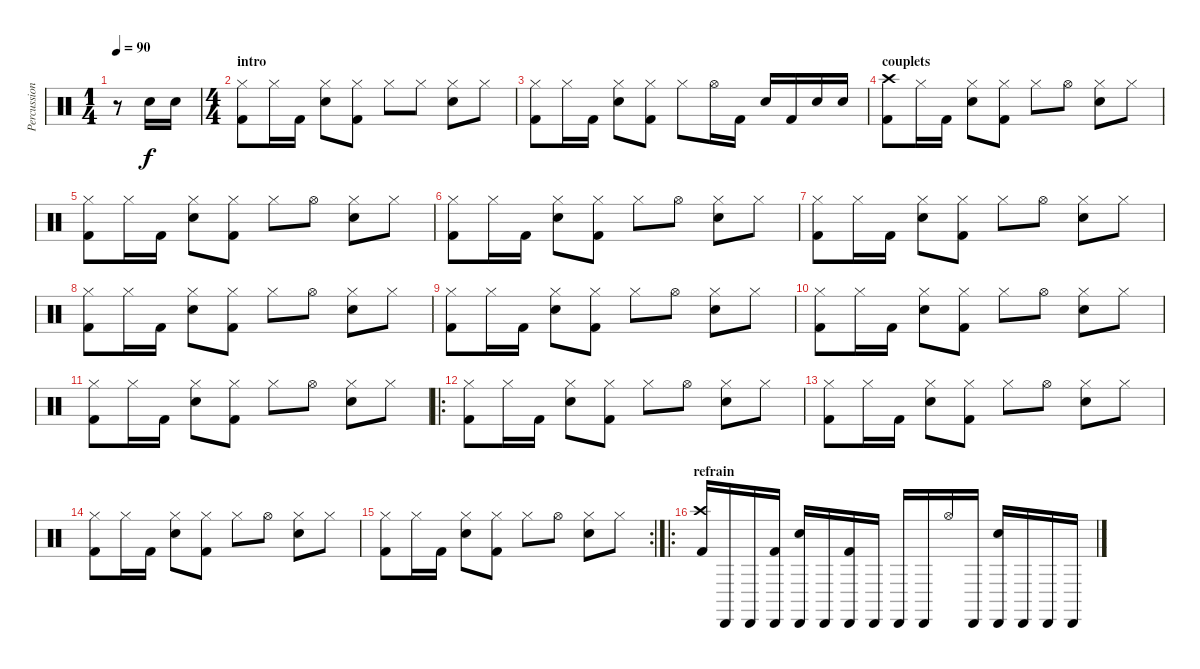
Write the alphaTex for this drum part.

\track ("Percussions" "Percussion") {instrument percussion}
\staff {score}
\articulation defaults
\ts (1 4)
\tempo 90
\clef neutral
\ks c
r.8{dy f} "Electric Snare (hit)".16 "Electric Snare (hit)".16 |
\ts (4 4)
\section ("" "intro")
("Hi-Hat (closed)" "Kick (hit) 2").8 "Hi-Hat (closed)".16 "Kick (hit) 2".16 ("Hi-Hat (closed)" "Electric Snare (hit)").8 ("Hi-Hat (closed)" "Kick (hit) 2").8 "Hi-Hat (closed)".8 "Hi-Hat (closed)".8 ("Hi-Hat (closed)" "Electric Snare (hit)").8 "Hi-Hat (closed)".8 |
("Hi-Hat (closed)" "Kick (hit) 2").8 "Hi-Hat (closed)".16 "Kick (hit) 2".16 ("Hi-Hat (closed)" "Electric Snare (hit)").8 ("Hi-Hat (closed)" "Kick (hit) 2").8 "Hi-Hat (closed)".8 "Hi-Hat (open)".16 "Kick (hit) 2".16 "Electric Snare (hit)".16 "Kick (hit) 2".16 "Electric Snare (hit)".16 "Electric Snare (hit)".16 |
\section ("" "couplets")
("Crash high (hit)" "Kick (hit) 2").8 "Hi-Hat (closed)".16 "Kick (hit) 2".16 ("Hi-Hat (closed)" "Electric Snare (hit)").8 ("Hi-Hat (closed)" "Kick (hit) 2").8 "Hi-Hat (closed)".8 "Hi-Hat (open)".8 ("Hi-Hat (closed)" "Electric Snare (hit)").8 "Hi-Hat (closed)".8 |
("Hi-Hat (closed)" "Kick (hit) 2").8 "Hi-Hat (closed)".16 "Kick (hit) 2".16 ("Hi-Hat (closed)" "Electric Snare (hit)").8 ("Hi-Hat (closed)" "Kick (hit) 2").8 "Hi-Hat (closed)".8 "Hi-Hat (open)".8 ("Hi-Hat (closed)" "Electric Snare (hit)").8 "Hi-Hat (closed)".8 |
("Hi-Hat (closed)" "Kick (hit) 2").8 "Hi-Hat (closed)".16 "Kick (hit) 2".16 ("Hi-Hat (closed)" "Electric Snare (hit)").8 ("Hi-Hat (closed)" "Kick (hit) 2").8 "Hi-Hat (closed)".8 "Hi-Hat (open)".8 ("Hi-Hat (closed)" "Electric Snare (hit)").8 "Hi-Hat (closed)".8 |
("Hi-Hat (closed)" "Kick (hit) 2").8 "Hi-Hat (closed)".16 "Kick (hit) 2".16 ("Hi-Hat (closed)" "Electric Snare (hit)").8 ("Hi-Hat (closed)" "Kick (hit) 2").8 "Hi-Hat (closed)".8 "Hi-Hat (open)".8 ("Hi-Hat (closed)" "Electric Snare (hit)").8 "Hi-Hat (closed)".8 |
("Hi-Hat (closed)" "Kick (hit) 2").8 "Hi-Hat (closed)".16 "Kick (hit) 2".16 ("Hi-Hat (closed)" "Electric Snare (hit)").8 ("Hi-Hat (closed)" "Kick (hit) 2").8 "Hi-Hat (closed)".8 "Hi-Hat (open)".8 ("Hi-Hat (closed)" "Electric Snare (hit)").8 "Hi-Hat (closed)".8 |
("Hi-Hat (closed)" "Kick (hit) 2").8 "Hi-Hat (closed)".16 "Kick (hit) 2".16 ("Hi-Hat (closed)" "Electric Snare (hit)").8 ("Hi-Hat (closed)" "Kick (hit) 2").8 "Hi-Hat (closed)".8 "Hi-Hat (open)".8 ("Hi-Hat (closed)" "Electric Snare (hit)").8 "Hi-Hat (closed)".8 |
("Hi-Hat (closed)" "Kick (hit) 2").8 "Hi-Hat (closed)".16 "Kick (hit) 2".16 ("Hi-Hat (closed)" "Electric Snare (hit)").8 ("Hi-Hat (closed)" "Kick (hit) 2").8 "Hi-Hat (closed)".8 "Hi-Hat (open)".8 ("Hi-Hat (closed)" "Electric Snare (hit)").8 "Hi-Hat (closed)".8 |
("Hi-Hat (closed)" "Kick (hit) 2").8 "Hi-Hat (closed)".16 "Kick (hit) 2".16 ("Hi-Hat (closed)" "Electric Snare (hit)").8 ("Hi-Hat (closed)" "Kick (hit) 2").8 "Hi-Hat (closed)".8 "Hi-Hat (open)".8 ("Hi-Hat (closed)" "Electric Snare (hit)").8 "Hi-Hat (closed)".8 |
\ro
("Hi-Hat (closed)" "Kick (hit) 2").8 "Hi-Hat (closed)".16 "Kick (hit) 2".16 ("Hi-Hat (closed)" "Electric Snare (hit)").8 ("Hi-Hat (closed)" "Kick (hit) 2").8 "Hi-Hat (closed)".8 "Hi-Hat (open)".8 ("Hi-Hat (closed)" "Electric Snare (hit)").8 "Hi-Hat (closed)".8 |
("Hi-Hat (closed)" "Kick (hit) 2").8 "Hi-Hat (closed)".16 "Kick (hit) 2".16 ("Hi-Hat (closed)" "Electric Snare (hit)").8 ("Hi-Hat (closed)" "Kick (hit) 2").8 "Hi-Hat (closed)".8 "Hi-Hat (open)".8 ("Hi-Hat (closed)" "Electric Snare (hit)").8 "Hi-Hat (closed)".8 |
("Hi-Hat (closed)" "Kick (hit) 2").8 "Hi-Hat (closed)".16 "Kick (hit) 2".16 ("Hi-Hat (closed)" "Electric Snare (hit)").8 ("Hi-Hat (closed)" "Kick (hit) 2").8 "Hi-Hat (closed)".8 "Hi-Hat (open)".8 ("Hi-Hat (closed)" "Electric Snare (hit)").8 "Hi-Hat (closed)".8 |
\rc 2
("Hi-Hat (closed)" "Kick (hit) 2").8 "Hi-Hat (closed)".16 "Kick (hit) 2".16 ("Hi-Hat (closed)" "Electric Snare (hit)").8 ("Hi-Hat (closed)" "Kick (hit) 2").8 "Hi-Hat (closed)".8 "Hi-Hat (open)".8 ("Hi-Hat (closed)" "Electric Snare (hit)").8 "Hi-Hat (closed)".8 |
\ro
\section ("" "refrain")
("Crash high (hit)" "Kick (hit) 2").16 "Cabasa (hit)".16 "Cabasa (hit)".16 ("Cabasa (hit)" "Kick (hit) 2").16 ("Cabasa (hit)" "Electric Snare (hit)").16 "Cabasa (hit)".16 ("Cabasa (hit)" "Kick (hit) 2").16 "Cabasa (hit)".16 "Cabasa (hit)".16 "Cabasa (hit)".16 "Hi-Hat (open)".16 "Cabasa (hit)".16 ("Cabasa (hit)" "Electric Snare (hit)").16 "Cabasa (hit)".16 "Cabasa (hit)".16 "Cabasa (hit)".16
